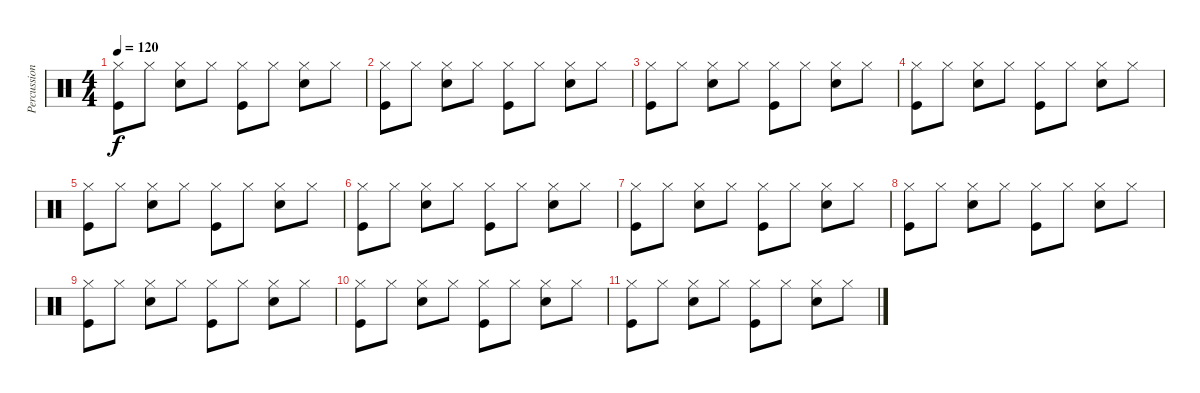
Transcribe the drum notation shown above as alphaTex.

\track ("Percussions" "Percussion") {instrument percussion}
\staff {score}
\articulation defaults
\ts (4 4)
\tempo 120
\clef neutral
\ks c
("Hi-Hat (closed)" "Kick (hit)").8{dy f} "Hi-Hat (closed)".8 ("Hi-Hat (closed)" "Snare (hit) 2").8 "Hi-Hat (closed)".8 ("Hi-Hat (closed)" "Kick (hit)").8 "Hi-Hat (closed)".8 ("Hi-Hat (closed)" "Snare (hit) 2").8 "Hi-Hat (closed)".8 |
("Hi-Hat (closed)" "Kick (hit)").8 "Hi-Hat (closed)".8 ("Hi-Hat (closed)" "Snare (hit) 2").8 "Hi-Hat (closed)".8 ("Hi-Hat (closed)" "Kick (hit)").8 "Hi-Hat (closed)".8 ("Hi-Hat (closed)" "Snare (hit) 2").8 "Hi-Hat (closed)".8 |
("Hi-Hat (closed)" "Kick (hit)").8 "Hi-Hat (closed)".8 ("Hi-Hat (closed)" "Snare (hit) 2").8 "Hi-Hat (closed)".8 ("Hi-Hat (closed)" "Kick (hit)").8 "Hi-Hat (closed)".8 ("Hi-Hat (closed)" "Snare (hit) 2").8 "Hi-Hat (closed)".8 |
("Hi-Hat (closed)" "Kick (hit)").8 "Hi-Hat (closed)".8 ("Hi-Hat (closed)" "Snare (hit) 2").8 "Hi-Hat (closed)".8 ("Hi-Hat (closed)" "Kick (hit)").8 "Hi-Hat (closed)".8 ("Hi-Hat (closed)" "Snare (hit) 2").8 "Hi-Hat (closed)".8 |
("Hi-Hat (closed)" "Kick (hit)").8 "Hi-Hat (closed)".8 ("Hi-Hat (closed)" "Snare (hit) 2").8 "Hi-Hat (closed)".8 ("Hi-Hat (closed)" "Kick (hit)").8 "Hi-Hat (closed)".8 ("Hi-Hat (closed)" "Snare (hit) 2").8 "Hi-Hat (closed)".8 |
("Hi-Hat (closed)" "Kick (hit)").8 "Hi-Hat (closed)".8 ("Hi-Hat (closed)" "Snare (hit) 2").8 "Hi-Hat (closed)".8 ("Hi-Hat (closed)" "Kick (hit)").8 "Hi-Hat (closed)".8 ("Hi-Hat (closed)" "Snare (hit) 2").8 "Hi-Hat (closed)".8 |
("Hi-Hat (closed)" "Kick (hit)").8 "Hi-Hat (closed)".8 ("Hi-Hat (closed)" "Snare (hit) 2").8 "Hi-Hat (closed)".8 ("Hi-Hat (closed)" "Kick (hit)").8 "Hi-Hat (closed)".8 ("Hi-Hat (closed)" "Snare (hit) 2").8 "Hi-Hat (closed)".8 |
("Hi-Hat (closed)" "Kick (hit)").8 "Hi-Hat (closed)".8 ("Hi-Hat (closed)" "Snare (hit) 2").8 "Hi-Hat (closed)".8 ("Hi-Hat (closed)" "Kick (hit)").8 "Hi-Hat (closed)".8 ("Hi-Hat (closed)" "Snare (hit) 2").8 "Hi-Hat (closed)".8 |
("Hi-Hat (closed)" "Kick (hit)").8 "Hi-Hat (closed)".8 ("Hi-Hat (closed)" "Snare (hit) 2").8 "Hi-Hat (closed)".8 ("Hi-Hat (closed)" "Kick (hit)").8 "Hi-Hat (closed)".8 ("Hi-Hat (closed)" "Snare (hit) 2").8 "Hi-Hat (closed)".8 |
("Hi-Hat (closed)" "Kick (hit)").8 "Hi-Hat (closed)".8 ("Hi-Hat (closed)" "Snare (hit) 2").8 "Hi-Hat (closed)".8 ("Hi-Hat (closed)" "Kick (hit)").8 "Hi-Hat (closed)".8 ("Hi-Hat (closed)" "Snare (hit) 2").8 "Hi-Hat (closed)".8 |
("Hi-Hat (closed)" "Kick (hit)").8 "Hi-Hat (closed)".8 ("Hi-Hat (closed)" "Snare (hit) 2").8 "Hi-Hat (closed)".8 ("Hi-Hat (closed)" "Kick (hit)").8 "Hi-Hat (closed)".8 ("Hi-Hat (closed)" "Snare (hit) 2").8 "Hi-Hat (closed)".8
